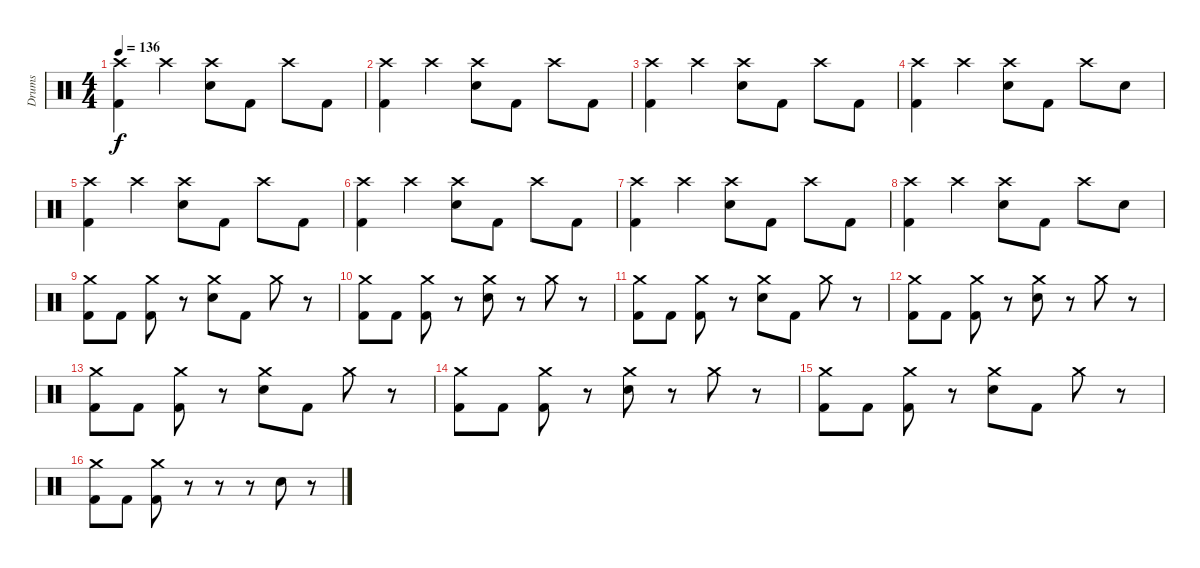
\track ("Drums" "Drums") {instrument percussion}
\staff {score}
\articulation defaults
\ts (4 4)
\tempo 136
\clef neutral
\ks c
("Crash high (hit)" "Kick (hit) 2").4{dy f} "Crash high (hit)".4 ("Crash high (hit)" "Electric Snare (hit)").8 "Kick (hit) 2".8 "Crash high (hit)".8 "Kick (hit) 2".8 |
("Crash high (hit)" "Kick (hit) 2").4 "Crash high (hit)".4 ("Crash high (hit)" "Electric Snare (hit)").8 "Kick (hit) 2".8 "Crash high (hit)".8 "Kick (hit) 2".8 |
("Crash high (hit)" "Kick (hit) 2").4 "Crash high (hit)".4 ("Crash high (hit)" "Electric Snare (hit)").8 "Kick (hit) 2".8 "Crash high (hit)".8 "Kick (hit) 2".8 |
("Crash high (hit)" "Kick (hit) 2").4 "Crash high (hit)".4 ("Crash high (hit)" "Electric Snare (hit)").8 "Kick (hit) 2".8 "Crash high (hit)".8 "Electric Snare (hit)".8 |
("Crash high (hit)" "Kick (hit) 2").4 "Crash high (hit)".4 ("Crash high (hit)" "Electric Snare (hit)").8 "Kick (hit) 2".8 "Crash high (hit)".8 "Kick (hit) 2".8 |
("Crash high (hit)" "Kick (hit) 2").4 "Crash high (hit)".4 ("Crash high (hit)" "Electric Snare (hit)").8 "Kick (hit) 2".8 "Crash high (hit)".8 "Kick (hit) 2".8 |
("Crash high (hit)" "Kick (hit) 2").4 "Crash high (hit)".4 ("Crash high (hit)" "Electric Snare (hit)").8 "Kick (hit) 2".8 "Crash high (hit)".8 "Kick (hit) 2".8 |
("Crash high (hit)" "Kick (hit) 2").4 "Crash high (hit)".4 ("Crash high (hit)" "Electric Snare (hit)").8 "Kick (hit) 2".8 "Crash high (hit)".8 "Electric Snare (hit)".8 |
("Crash medium (hit)" "Kick (hit) 2").8 "Kick (hit) 2".8 ("Crash medium (hit)" "Kick (hit) 2").8 r.8 ("Crash medium (hit)" "Electric Snare (hit)").8 "Kick (hit) 2".8 "Crash medium (hit)".8 r.8 |
("Crash medium (hit)" "Kick (hit) 2").8 "Kick (hit) 2".8 ("Crash medium (hit)" "Kick (hit) 2").8 r.8 ("Crash medium (hit)" "Electric Snare (hit)").8 r.8 "Crash medium (hit)".8 r.8 |
("Crash medium (hit)" "Kick (hit) 2").8 "Kick (hit) 2".8 ("Crash medium (hit)" "Kick (hit) 2").8 r.8 ("Crash medium (hit)" "Electric Snare (hit)").8 "Kick (hit) 2".8 "Crash medium (hit)".8 r.8 |
("Crash medium (hit)" "Kick (hit) 2").8 "Kick (hit) 2".8 ("Crash medium (hit)" "Kick (hit) 2").8 r.8 ("Crash medium (hit)" "Electric Snare (hit)").8 r.8 "Crash medium (hit)".8 r.8 |
("Crash medium (hit)" "Kick (hit) 2").8 "Kick (hit) 2".8 ("Crash medium (hit)" "Kick (hit) 2").8 r.8 ("Crash medium (hit)" "Electric Snare (hit)").8 "Kick (hit) 2".8 "Crash medium (hit)".8 r.8 |
("Crash medium (hit)" "Kick (hit) 2").8 "Kick (hit) 2".8 ("Crash medium (hit)" "Kick (hit) 2").8 r.8 ("Crash medium (hit)" "Electric Snare (hit)").8 r.8 "Crash medium (hit)".8 r.8 |
("Crash medium (hit)" "Kick (hit) 2").8 "Kick (hit) 2".8 ("Crash medium (hit)" "Kick (hit) 2").8 r.8 ("Crash medium (hit)" "Electric Snare (hit)").8 "Kick (hit) 2".8 "Crash medium (hit)".8 r.8 |
("Crash medium (hit)" "Kick (hit) 2").8 "Kick (hit) 2".8 ("Crash medium (hit)" "Kick (hit) 2").8 r.8 r.8 r.8 "Electric Snare (hit)".8 r.8
